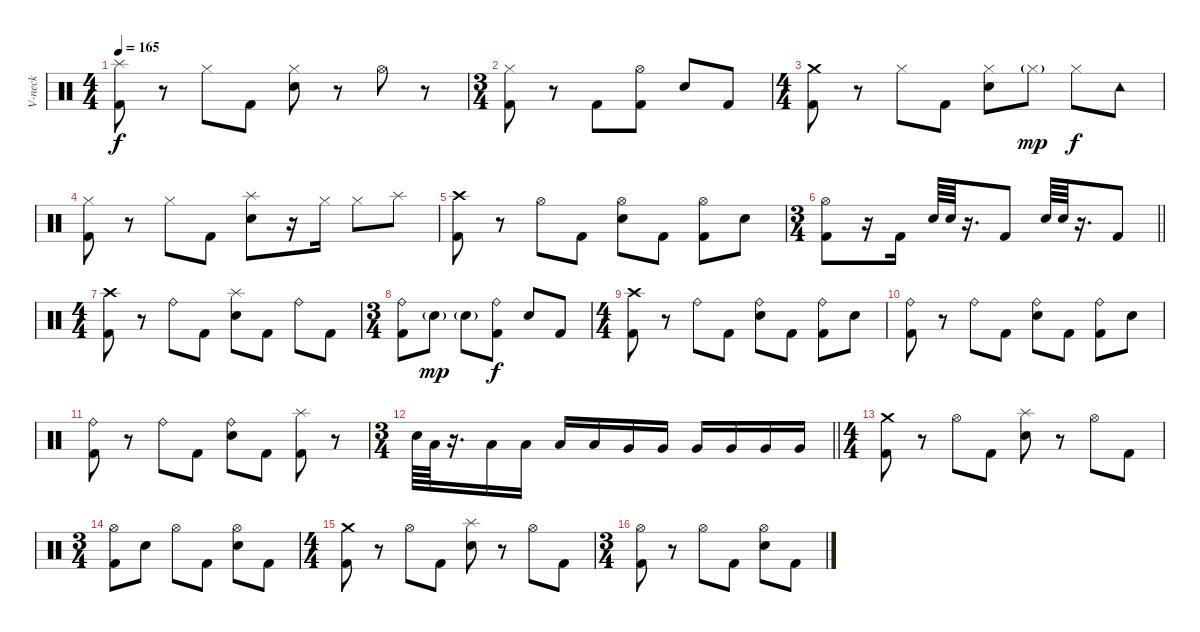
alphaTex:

\track ("V-neck" "V-neck") {instrument percussion}
\staff {score}
\articulation defaults
\ts (4 4)
\tempo 165
\clef neutral
\ks c
("Splash (hit)" "Kick (hit) 2").8{dy f} r.8 "Hi-Hat (closed)".8 "Kick (hit) 2".8 ("Hi-Hat (closed)" "Electric Snare (hit)").8 r.8 "Hi-Hat (open)".8 r.8 |
\ts (3 4)
("Hi-Hat (closed)" "Kick (hit) 2").8 r.8 "Kick (hit) 2".8 ("Hi-Hat (open)" "Kick (hit) 2").8 "Electric Snare (hit)".8 "Kick (hit) 2".8 |
\ts (4 4)
("Crash medium (hit)" "Kick (hit) 2").8 r.8 "Hi-Hat (closed)".8 "Kick (hit) 2".8 ("Hi-Hat (closed)" "Electric Snare (hit)").8 "Hi-Hat (closed)"{g}.8{dy mp} "Hi-Hat (closed)".8{dy f} "Tambourine (hit)".8 |
("Hi-Hat (closed)" "Kick (hit) 2").8 r.8 "Hi-Hat (closed)".8 "Kick (hit) 2".8 ("Splash (hit)" "Electric Snare (hit)").8 r.16 "Hi-Hat (closed)".16 "Hi-Hat (closed)".8 "Splash (hit)".8 |
("Crash high (hit)" "Kick (hit) 2").8 r.8 "Hi-Hat (open)".8 "Kick (hit) 2".8 ("Hi-Hat (open)" "Electric Snare (hit)").8 "Kick (hit) 2".8 ("Hi-Hat (open)" "Kick (hit) 2").8 "Electric Snare (hit)".8 |
\ts (3 4)
\barLineRight lightlight
("Hi-Hat (open)" "Kick (hit) 2").8 r.16 "Kick (hit) 2".16 "Electric Snare (hit)".64 "Electric Snare (hit)".64 r.16{d} "Kick (hit) 2".8 "Electric Snare (hit)".64 "Electric Snare (hit)".64 r.16{d} "Kick (hit) 2".8 |
\ts (4 4)
\section ("" "")
("Crash high (hit)" "Kick (hit) 2").8 r.8 "Ride (bell)".8 "Kick (hit) 2".8 ("Splash (hit)" "Electric Snare (hit)").8 "Kick (hit) 2".8 "Ride (bell)".8 "Kick (hit) 2".8 |
\ts (3 4)
("Ride (bell)" "Kick (hit) 2").8 "Electric Snare (hit)"{g}.8{dy mp} "Electric Snare (hit)"{g}.8 ("Ride (bell)" "Kick (hit) 2").8{dy f} "Electric Snare (hit)".8 "Kick (hit) 2".8 |
\ts (4 4)
("Crash high (hit)" "Kick (hit) 2").8 r.8 "Ride (bell)".8 "Kick (hit) 2".8 ("Ride (bell)" "Electric Snare (hit)").8 "Kick (hit) 2".8 ("Ride (bell)" "Kick (hit) 2").8 "Electric Snare (hit)".8 |
("Ride (bell)" "Kick (hit) 2").8 r.8 "Ride (bell)".8 "Kick (hit) 2".8 ("Ride (bell)" "Electric Snare (hit)").8 "Kick (hit) 2".8 ("Ride (bell)" "Kick (hit) 2").8 "Electric Snare (hit)".8 |
("Ride (bell)" "Kick (hit) 2").8 r.8 "Ride (bell)".8 "Kick (hit) 2".8 ("Ride (bell)" "Electric Snare (hit)").8 "Kick (hit) 2".8 ("Splash (hit)" "Kick (hit) 2").8 r.8 |
\ts (3 4)
\barLineRight lightlight "Electric Snare (hit)".64 "Low Tom (hit)".64
r.16{d} "Low Tom (hit)".16 "Low Tom (hit)".16 "Low Tom (hit)".16 "Low Tom (hit)".16 "Very Low Tom (hit)".16 "Very Low Tom (hit)".16 "Very Low Tom (hit)".16 "Very Low Tom (hit)".16 "Very Low Tom (hit)".16 "Very Low Tom (hit)".16 |
\ts (4 4)
\section ("" "")
("Crash medium (hit)" "Kick (hit) 2").8 r.8 "Hi-Hat (open)".8 "Kick (hit) 2".8 ("Splash (hit)" "Electric Snare (hit)").8 r.8 "Hi-Hat (open)".8 "Kick (hit) 2".8 |
\ts (3 4)
("Hi-Hat (open)" "Kick (hit) 2").8 "Electric Snare (hit)".8 "Hi-Hat (open)".8 "Kick (hit) 2".8 ("Hi-Hat (open)" "Electric Snare (hit)").8 "Kick (hit) 2".8 |
\ts (4 4)
("Crash medium (hit)" "Kick (hit) 2").8 r.8 "Hi-Hat (open)".8 "Kick (hit) 2".8 ("Splash (hit)" "Electric Snare (hit)").8 r.8 "Hi-Hat (open)".8 "Kick (hit) 2".8 |
\ts (3 4)
("Hi-Hat (open)" "Kick (hit) 2").8 r.8 "Hi-Hat (open)".8 "Kick (hit) 2".8 ("Hi-Hat (open)" "Electric Snare (hit)").8 "Kick (hit) 2".8
